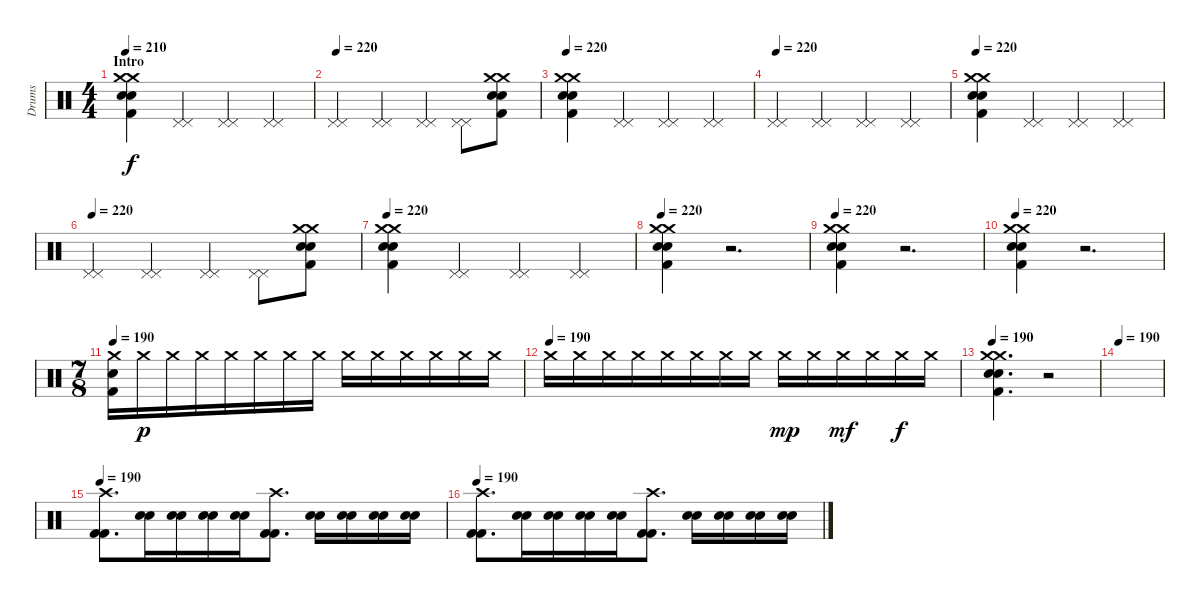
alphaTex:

\track ("Drums" "Drums") {instrument percussion}
\staff {score}
\articulation defaults
\ts (4 4)
\section ("" "Intro")
\tempo 210
\tempo 220
\tempo 210
\clef neutral
\ks c
("Crash medium (hit)" "Snare (hit) 2" "Snare (hit) 2" "Crash medium (hit)" "Kick (hit) 2").4{dy f} ("Pedal Hi-Hat (hit)" "Pedal Hi-Hat (hit)").4 ("Pedal Hi-Hat (hit)" "Pedal Hi-Hat (hit)").4 ("Pedal Hi-Hat (hit)" "Pedal Hi-Hat (hit)").4 |
\tempo 220
("Pedal Hi-Hat (hit)" "Pedal Hi-Hat (hit)").4 ("Pedal Hi-Hat (hit)" "Pedal Hi-Hat (hit)").4 ("Pedal Hi-Hat (hit)" "Pedal Hi-Hat (hit)").4 ("Pedal Hi-Hat (hit)" "Pedal Hi-Hat (hit)").8 ("Crash medium (hit)" "Snare (hit) 2" "Snare (hit) 2" "Crash medium (hit)" "Kick (hit) 2").8 |
\tempo 220
("Crash medium (hit)" "Snare (hit) 2" "Snare (hit) 2" "Crash medium (hit)" "Kick (hit) 2").4 ("Pedal Hi-Hat (hit)" "Pedal Hi-Hat (hit)").4 ("Pedal Hi-Hat (hit)" "Pedal Hi-Hat (hit)").4 ("Pedal Hi-Hat (hit)" "Pedal Hi-Hat (hit)").4 |
\tempo 220
("Pedal Hi-Hat (hit)" "Pedal Hi-Hat (hit)").4 ("Pedal Hi-Hat (hit)" "Pedal Hi-Hat (hit)").4 ("Pedal Hi-Hat (hit)" "Pedal Hi-Hat (hit)").4 ("Pedal Hi-Hat (hit)" "Pedal Hi-Hat (hit)").4 |
\tempo 220
("Crash medium (hit)" "Snare (hit) 2" "Snare (hit) 2" "Crash medium (hit)" "Kick (hit) 2").4 ("Pedal Hi-Hat (hit)" "Pedal Hi-Hat (hit)").4 ("Pedal Hi-Hat (hit)" "Pedal Hi-Hat (hit)").4 ("Pedal Hi-Hat (hit)" "Pedal Hi-Hat (hit)").4 |
\tempo 220
("Pedal Hi-Hat (hit)" "Pedal Hi-Hat (hit)").4 ("Pedal Hi-Hat (hit)" "Pedal Hi-Hat (hit)").4 ("Pedal Hi-Hat (hit)" "Pedal Hi-Hat (hit)").4 ("Pedal Hi-Hat (hit)" "Pedal Hi-Hat (hit)").8 ("Crash medium (hit)" "Snare (hit) 2" "Snare (hit) 2" "Crash medium (hit)" "Kick (hit) 2").8 |
\tempo 220
("Crash medium (hit)" "Snare (hit) 2" "Snare (hit) 2" "Crash medium (hit)" "Kick (hit) 2").4 ("Pedal Hi-Hat (hit)" "Pedal Hi-Hat (hit)").4 ("Pedal Hi-Hat (hit)" "Pedal Hi-Hat (hit)").4 ("Pedal Hi-Hat (hit)" "Pedal Hi-Hat (hit)").4 |
\tempo 220
("Crash medium (hit)" "Snare (hit) 2" "Snare (hit) 2" "Crash medium (hit)" "Kick (hit) 2").4 r.2{d} |
\tempo 220
("Crash medium (hit)" "Snare (hit) 2" "Snare (hit) 2" "Crash medium (hit)" "Kick (hit) 2").4 r.2{d} |
\tempo 220
("Crash medium (hit)" "Snare (hit) 2" "Snare (hit) 2" "Crash medium (hit)" "Kick (hit) 2").4 r.2{d} |
\ts (7 8)
\tempo 190
("Crash medium (hit)" "Snare (hit) 2" "Kick (hit) 2").16 "Crash medium (hit)".16{dy p} "Crash medium (hit)".16 "Crash medium (hit)".16 "Crash medium (hit)".16 "Crash medium (hit)".16 "Crash medium (hit)".16 "Crash medium (hit)".16 "Crash medium (hit)".16 "Crash medium (hit)".16 "Crash medium (hit)".16 "Crash medium (hit)".16 "Crash medium (hit)".16 "Crash medium (hit)".16 |
\tempo (190)
"Crash medium (hit)".16 "Crash medium (hit)".16 "Crash medium (hit)".16 "Crash medium (hit)".16 "Crash medium (hit)".16 "Crash medium (hit)".16 "Crash medium (hit)".16 "Crash medium (hit)".16 "Crash medium (hit)".16{dy mp} "Crash medium (hit)".16 "Crash medium (hit)".16{dy mf} "Crash medium (hit)".16 "Crash medium (hit)".16{dy f} "Crash medium (hit)".16 |
\tempo 190
("Crash medium (hit)" "Snare (hit) 2" "Snare (hit) 2" "Crash medium (hit)" "Kick (hit) 2").4{d} r.2 |
\tempo 190
|
\tempo 190
("Crash high (hit)" "Kick (hit) 2" "Kick (hit) 2").8{d} ("Snare (hit) 2" "Snare (hit) 2").16 ("Snare (hit) 2" "Snare (hit) 2").16 ("Snare (hit) 2" "Snare (hit) 2").16 ("Snare (hit) 2" "Snare (hit) 2").16 ("Crash high (hit)" "Kick (hit) 2" "Kick (hit) 2").8{d} ("Snare (hit) 2" "Snare (hit) 2").16 ("Snare (hit) 2" "Snare (hit) 2").16 ("Snare (hit) 2" "Snare (hit) 2").16 ("Snare (hit) 2" "Snare (hit) 2").16 |
\tempo 190
("Crash high (hit)" "Kick (hit) 2" "Kick (hit) 2").8{d} ("Snare (hit) 2" "Snare (hit) 2").16 ("Snare (hit) 2" "Snare (hit) 2").16 ("Snare (hit) 2" "Snare (hit) 2").16 ("Snare (hit) 2" "Snare (hit) 2").16 ("Crash high (hit)" "Kick (hit) 2" "Kick (hit) 2").8{d} ("Snare (hit) 2" "Snare (hit) 2").16 ("Snare (hit) 2" "Snare (hit) 2").16 ("Snare (hit) 2" "Snare (hit) 2").16 ("Snare (hit) 2" "Snare (hit) 2").16
